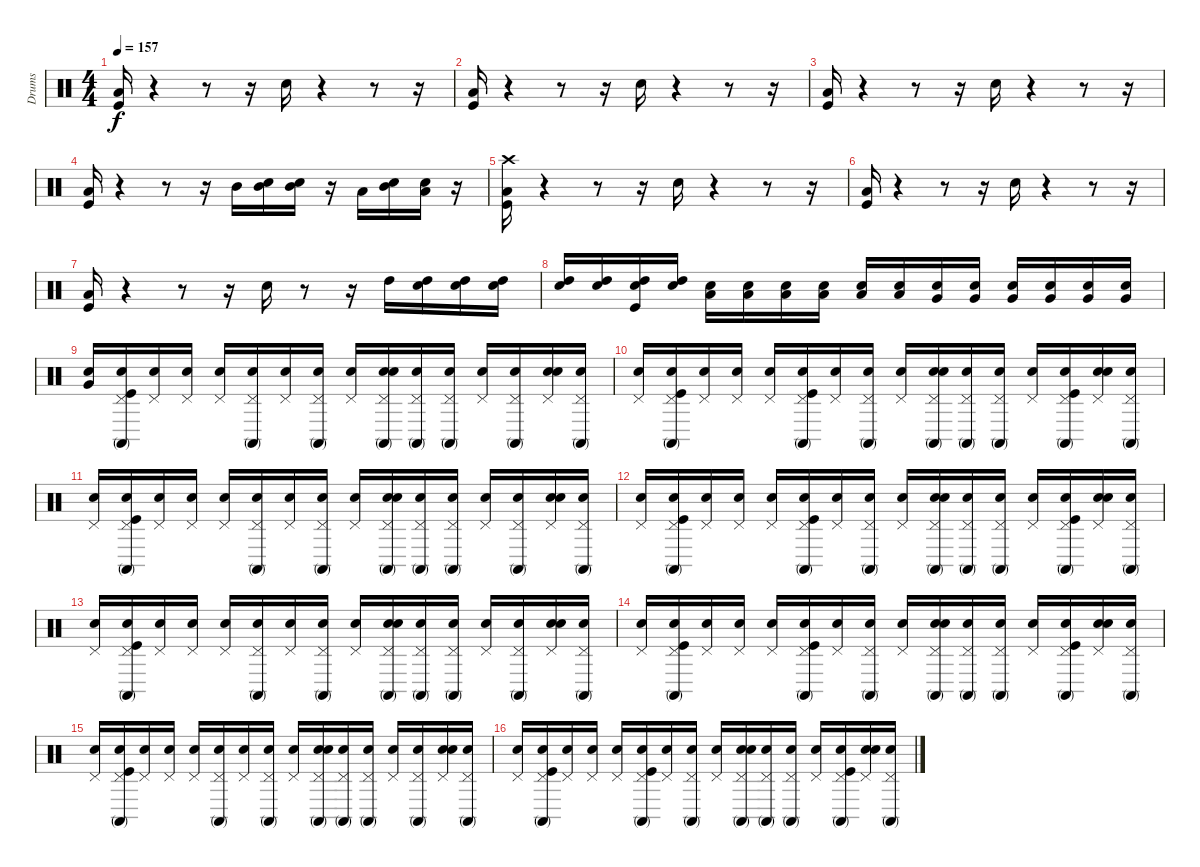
\track ("Drums" "Drums") {instrument percussion}
\staff {score}
\articulation defaults
\ts (4 4)
\tempo 157
\clef neutral
\ks c
("Kick (hit)" "Low Floor Tom (hit)").16{dy f} r.4 r.8 r.16 "Snare (hit) 2".16 r.4 r.8 r.16 |
("Low Floor Tom (hit)" "Kick (hit)").16 r.4 r.8 r.16 "Snare (hit) 2".16 r.4 r.8 r.16 |
("Low Floor Tom (hit)" "Kick (hit)").16 r.4 r.8 r.16 "Snare (hit) 2".16 r.4 r.8 r.16 |
("Low Floor Tom (hit)" "Kick (hit)").16 r.4 r.8 r.16 "Mid Tom (hit)".16 ("Snare (hit)" "Mid Tom (hit)").16 ("Snare (hit)" "Mid Tom (hit)").16 r.16 "Low Tom (hit)".16 ("Snare (hit)" "Mid Tom (hit)").16 ("Snare (hit)" "Low Tom (hit)").16 r.16 |
("Crash high (hit)" "Kick (hit)" "Low Floor Tom (hit)").16 r.4 r.8 r.16 "Snare (hit) 2".16 r.4 r.8 r.16 |
("Low Floor Tom (hit)" "Kick (hit)").16 r.4 r.8 r.16 "Snare (hit) 2".16 r.4 r.8 r.16 |
("Low Floor Tom (hit)" "Kick (hit)").16 r.4 r.8 r.16 "Snare (hit) 2".16 r.8 r.16 "High Tom (hit)".16 ("Snare (hit)" "High Tom (hit)").16 ("Snare (hit)" "High Tom (hit)").16 ("Snare (hit)" "High Tom (hit)").16 |
("Snare (hit)" "High Tom (hit)").16 ("Snare (hit)" "High Tom (hit)").16 ("Snare (hit)" "High Tom (hit)" "Kick (hit)").16 ("Snare (hit)" "High Tom (hit)").16 ("Snare (hit)" "Low Tom (hit)").16 ("Snare (hit)" "Low Tom (hit)").16 ("Snare (hit)" "Low Tom (hit)").16 ("Snare (hit)" "Low Tom (hit)").16 ("Snare (hit)" "Low Tom (hit)").16 ("Snare (hit)" "Low Tom (hit)").16 ("Snare (hit)" "Very Low Tom (hit)").16 ("Snare (hit)" "Very Low Tom (hit)").16 ("Snare (hit)" "Very Low Tom (hit)").16 ("Snare (hit)" "Very Low Tom (hit)").16 ("Snare (hit)" "Very Low Tom (hit)").16 ("Snare (hit)" "Very Low Tom (hit)").16 |
("Snare (hit)" "Very Low Tom (hit)").16 ("Snare (hit)" "Pedal Hi-Hat (hit)" "Kick (hit)" "Conga high (mute)").16 ("Snare (hit)" "Pedal Hi-Hat (hit)").16 ("Snare (hit)" "Pedal Hi-Hat (hit)").16 ("Snare (hit)" "Pedal Hi-Hat (hit)").16 ("Snare (hit)" "Pedal Hi-Hat (hit)" "Conga high (mute)").16 ("Snare (hit)" "Pedal Hi-Hat (hit)").16 ("Snare (hit)" "Conga high (mute)" "Pedal Hi-Hat (hit)").16 ("Snare (hit)" "Pedal Hi-Hat (hit)").16 ("Snare (hit)" "Pedal Hi-Hat (hit)" "Conga high (mute)" "Snare (hit) 2").16 ("Snare (hit)" "Pedal Hi-Hat (hit)" "Conga high (mute)").16 ("Snare (hit)" "Conga high (mute)" "Pedal Hi-Hat (hit)").16 ("Snare (hit)" "Pedal Hi-Hat (hit)").16 ("Snare (hit)" "Pedal Hi-Hat (hit)" "Conga high (mute)").16 ("Snare (hit)" "Snare (hit) 2" "Pedal Hi-Hat (hit)").16 ("Snare (hit)" "Conga high (mute)" "Pedal Hi-Hat (hit)").16 |
("Snare (hit)" "Pedal Hi-Hat (hit)").16 ("Snare (hit)" "Conga high (mute)" "Pedal Hi-Hat (hit)" "Kick (hit)").16 ("Snare (hit)" "Pedal Hi-Hat (hit)").16 ("Snare (hit)" "Pedal Hi-Hat (hit)").16 ("Snare (hit)" "Pedal Hi-Hat (hit)").16 ("Snare (hit)" "Conga high (mute)" "Pedal Hi-Hat (hit)" "Kick (hit)").16 ("Snare (hit)" "Pedal Hi-Hat (hit)").16 ("Snare (hit)" "Conga high (mute)" "Pedal Hi-Hat (hit)").16 ("Snare (hit)" "Pedal Hi-Hat (hit)").16 ("Snare (hit)" "Conga high (mute)" "Pedal Hi-Hat (hit)" "Snare (hit) 2").16 ("Snare (hit)" "Conga high (mute)" "Pedal Hi-Hat (hit)").16 ("Snare (hit)" "Conga high (mute)" "Pedal Hi-Hat (hit)").16 ("Snare (hit)" "Pedal Hi-Hat (hit)").16 ("Snare (hit)" "Conga high (mute)" "Pedal Hi-Hat (hit)" "Kick (hit)").16 ("Snare (hit)" "Pedal Hi-Hat (hit)" "Snare (hit) 2").16 ("Snare (hit)" "Conga high (mute)" "Pedal Hi-Hat (hit)").16 |
("Snare (hit)" "Pedal Hi-Hat (hit)").16 ("Snare (hit)" "Pedal Hi-Hat (hit)" "Conga high (mute)" "Kick (hit)").16 ("Snare (hit)" "Pedal Hi-Hat (hit)").16 ("Snare (hit)" "Pedal Hi-Hat (hit)").16 ("Snare (hit)" "Pedal Hi-Hat (hit)").16 ("Snare (hit)" "Conga high (mute)" "Pedal Hi-Hat (hit)").16 ("Snare (hit)" "Pedal Hi-Hat (hit)").16 ("Snare (hit)" "Conga high (mute)" "Pedal Hi-Hat (hit)").16 ("Snare (hit)" "Pedal Hi-Hat (hit)").16 ("Snare (hit)" "Conga high (mute)" "Snare (hit) 2" "Pedal Hi-Hat (hit)").16 ("Snare (hit)" "Pedal Hi-Hat (hit)" "Conga high (mute)").16 ("Snare (hit)" "Pedal Hi-Hat (hit)" "Conga high (mute)").16 ("Snare (hit)" "Pedal Hi-Hat (hit)").16 ("Snare (hit)" "Conga high (mute)" "Pedal Hi-Hat (hit)").16 ("Snare (hit)" "Pedal Hi-Hat (hit)" "Snare (hit) 2").16 ("Snare (hit)" "Conga high (mute)" "Pedal Hi-Hat (hit)").16 |
("Snare (hit)" "Pedal Hi-Hat (hit)").16 ("Snare (hit)" "Kick (hit)" "Pedal Hi-Hat (hit)" "Conga high (mute)").16 ("Snare (hit)" "Pedal Hi-Hat (hit)").16 ("Snare (hit)" "Pedal Hi-Hat (hit)").16 ("Snare (hit)" "Pedal Hi-Hat (hit)").16 ("Snare (hit)" "Pedal Hi-Hat (hit)" "Conga high (mute)" "Kick (hit)").16 ("Snare (hit)" "Pedal Hi-Hat (hit)").16 ("Snare (hit)" "Pedal Hi-Hat (hit)" "Conga high (mute)").16 ("Snare (hit)" "Pedal Hi-Hat (hit)").16 ("Snare (hit)" "Snare (hit) 2" "Pedal Hi-Hat (hit)" "Conga high (mute)").16 ("Snare (hit)" "Conga high (mute)" "Pedal Hi-Hat (hit)").16 ("Snare (hit)" "Conga high (mute)" "Pedal Hi-Hat (hit)").16 ("Snare (hit)" "Pedal Hi-Hat (hit)").16 ("Snare (hit)" "Kick (hit)" "Pedal Hi-Hat (hit)" "Conga high (mute)").16 ("Snare (hit)" "Pedal Hi-Hat (hit)" "Snare (hit) 2").16 ("Snare (hit)" "Pedal Hi-Hat (hit)" "Conga high (mute)").16 |
("Snare (hit)" "Pedal Hi-Hat (hit)").16 ("Snare (hit)" "Pedal Hi-Hat (hit)" "Conga high (mute)" "Kick (hit)").16 ("Snare (hit)" "Pedal Hi-Hat (hit)").16 ("Snare (hit)" "Pedal Hi-Hat (hit)").16 ("Snare (hit)" "Pedal Hi-Hat (hit)").16 ("Snare (hit)" "Conga high (mute)" "Pedal Hi-Hat (hit)").16 ("Snare (hit)" "Pedal Hi-Hat (hit)").16 ("Snare (hit)" "Pedal Hi-Hat (hit)" "Conga high (mute)").16 ("Snare (hit)" "Pedal Hi-Hat (hit)").16 ("Snare (hit)" "Snare (hit) 2" "Conga high (mute)" "Pedal Hi-Hat (hit)").16 ("Snare (hit)" "Conga high (mute)" "Pedal Hi-Hat (hit)").16 ("Snare (hit)" "Pedal Hi-Hat (hit)" "Conga high (mute)").16 ("Snare (hit)" "Pedal Hi-Hat (hit)").16 ("Snare (hit)" "Pedal Hi-Hat (hit)" "Conga high (mute)").16 ("Snare (hit)" "Snare (hit) 2" "Pedal Hi-Hat (hit)").16 ("Snare (hit)" "Conga high (mute)" "Pedal Hi-Hat (hit)").16 |
("Snare (hit)" "Pedal Hi-Hat (hit)").16 ("Snare (hit)" "Conga high (mute)" "Pedal Hi-Hat (hit)" "Kick (hit)").16 ("Snare (hit)" "Pedal Hi-Hat (hit)").16 ("Snare (hit)" "Pedal Hi-Hat (hit)").16 ("Snare (hit)" "Pedal Hi-Hat (hit)").16 ("Snare (hit)" "Pedal Hi-Hat (hit)" "Conga high (mute)" "Kick (hit)").16 ("Snare (hit)" "Pedal Hi-Hat (hit)").16 ("Snare (hit)" "Pedal Hi-Hat (hit)" "Conga high (mute)").16 ("Snare (hit)" "Pedal Hi-Hat (hit)").16 ("Snare (hit)" "Snare (hit) 2" "Conga high (mute)" "Pedal Hi-Hat (hit)").16 ("Snare (hit)" "Conga high (mute)" "Pedal Hi-Hat (hit)").16 ("Snare (hit)" "Pedal Hi-Hat (hit)" "Conga high (mute)").16 ("Snare (hit)" "Pedal Hi-Hat (hit)").16 ("Snare (hit)" "Conga high (mute)" "Pedal Hi-Hat (hit)" "Kick (hit)").16 ("Snare (hit)" "Pedal Hi-Hat (hit)" "Snare (hit) 2").16 ("Snare (hit)" "Pedal Hi-Hat (hit)" "Conga high (mute)").16 |
("Snare (hit)" "Pedal Hi-Hat (hit)").16 ("Snare (hit)" "Kick (hit)" "Conga high (mute)" "Pedal Hi-Hat (hit)").16 ("Snare (hit)" "Pedal Hi-Hat (hit)").16 ("Snare (hit)" "Pedal Hi-Hat (hit)").16 ("Snare (hit)" "Pedal Hi-Hat (hit)").16 ("Snare (hit)" "Conga high (mute)" "Pedal Hi-Hat (hit)").16 ("Snare (hit)" "Pedal Hi-Hat (hit)").16 ("Snare (hit)" "Pedal Hi-Hat (hit)" "Conga high (mute)").16 ("Snare (hit)" "Pedal Hi-Hat (hit)").16 ("Snare (hit)" "Pedal Hi-Hat (hit)" "Conga high (mute)" "Snare (hit) 2").16 ("Snare (hit)" "Conga high (mute)" "Pedal Hi-Hat (hit)").16 ("Snare (hit)" "Conga high (mute)" "Pedal Hi-Hat (hit)").16 ("Snare (hit)" "Pedal Hi-Hat (hit)").16 ("Snare (hit)" "Conga high (mute)" "Pedal Hi-Hat (hit)").16 ("Snare (hit)" "Pedal Hi-Hat (hit)" "Snare (hit) 2").16 ("Snare (hit)" "Conga high (mute)" "Pedal Hi-Hat (hit)").16 |
("Snare (hit)" "Pedal Hi-Hat (hit)").16 ("Snare (hit)" "Pedal Hi-Hat (hit)" "Conga high (mute)" "Kick (hit)").16 ("Snare (hit)" "Pedal Hi-Hat (hit)").16 ("Snare (hit)" "Pedal Hi-Hat (hit)").16 ("Snare (hit)" "Pedal Hi-Hat (hit)").16 ("Snare (hit)" "Conga high (mute)" "Kick (hit)" "Pedal Hi-Hat (hit)").16 ("Snare (hit)" "Pedal Hi-Hat (hit)").16 ("Snare (hit)" "Conga high (mute)" "Pedal Hi-Hat (hit)").16 ("Snare (hit)" "Pedal Hi-Hat (hit)").16 ("Snare (hit)" "Snare (hit) 2" "Conga high (mute)" "Pedal Hi-Hat (hit)").16 ("Snare (hit)" "Pedal Hi-Hat (hit)" "Conga high (mute)").16 ("Snare (hit)" "Pedal Hi-Hat (hit)" "Conga high (mute)").16 ("Snare (hit)" "Pedal Hi-Hat (hit)").16 ("Snare (hit)" "Conga high (mute)" "Pedal Hi-Hat (hit)" "Kick (hit)").16 ("Snare (hit)" "Pedal Hi-Hat (hit)" "Snare (hit) 2").16 ("Snare (hit)" "Pedal Hi-Hat (hit)" "Conga high (mute)").16
